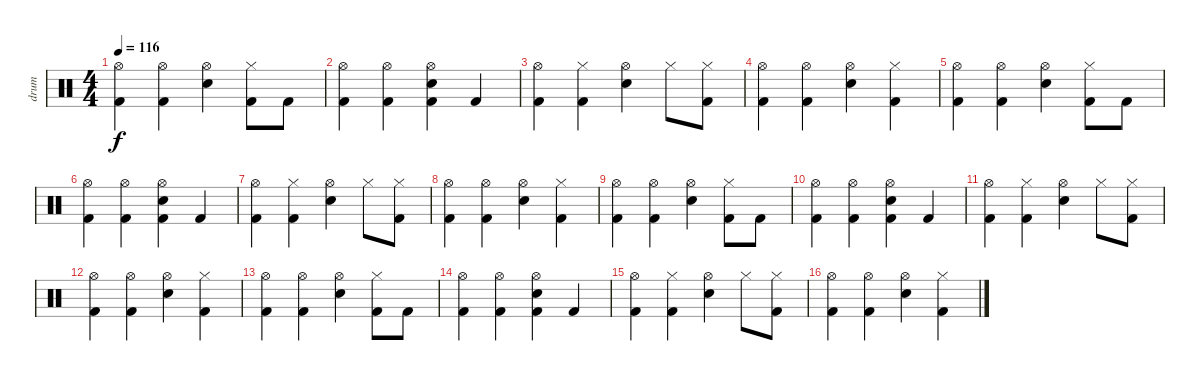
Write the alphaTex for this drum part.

\track ("drum" "drum") {instrument percussion}
\staff {score}
\articulation defaults
\ts (4 4)
\tempo 116
\clef neutral
\ks c
("Hi-Hat (open)" "Kick (hit) 2").4{dy f} ("Hi-Hat (open)" "Kick (hit) 2").4 ("Hi-Hat (open)" "Electric Snare (hit)").4 ("Hi-Hat (closed)" "Kick (hit) 2").8 "Kick (hit) 2".8 |
("Hi-Hat (open)" "Kick (hit) 2").4 ("Hi-Hat (open)" "Kick (hit) 2").4 ("Hi-Hat (open)" "Electric Snare (hit)" "Kick (hit) 2").4 "Kick (hit) 2".4 |
("Hi-Hat (open)" "Kick (hit) 2").4 ("Hi-Hat (closed)" "Kick (hit) 2").4 ("Hi-Hat (open)" "Electric Snare (hit)").4 "Hi-Hat (closed)".8 ("Hi-Hat (closed)" "Kick (hit) 2").8 |
("Hi-Hat (open)" "Kick (hit) 2").4 ("Hi-Hat (open)" "Kick (hit) 2").4 ("Hi-Hat (open)" "Electric Snare (hit)").4 ("Hi-Hat (closed)" "Kick (hit) 2").4 |
("Hi-Hat (open)" "Kick (hit) 2").4 ("Hi-Hat (open)" "Kick (hit) 2").4 ("Hi-Hat (open)" "Electric Snare (hit)").4 ("Hi-Hat (closed)" "Kick (hit) 2").8 "Kick (hit) 2".8 |
("Hi-Hat (open)" "Kick (hit) 2").4 ("Hi-Hat (open)" "Kick (hit) 2").4 ("Hi-Hat (open)" "Electric Snare (hit)" "Kick (hit) 2").4 "Kick (hit) 2".4 |
("Hi-Hat (open)" "Kick (hit) 2").4 ("Hi-Hat (closed)" "Kick (hit) 2").4 ("Hi-Hat (open)" "Electric Snare (hit)").4 "Hi-Hat (closed)".8 ("Hi-Hat (closed)" "Kick (hit) 2").8 |
("Hi-Hat (open)" "Kick (hit) 2").4 ("Hi-Hat (open)" "Kick (hit) 2").4 ("Hi-Hat (open)" "Electric Snare (hit)").4 ("Hi-Hat (closed)" "Kick (hit) 2").4 |
("Hi-Hat (open)" "Kick (hit) 2").4 ("Hi-Hat (open)" "Kick (hit) 2").4 ("Hi-Hat (open)" "Electric Snare (hit)").4 ("Hi-Hat (closed)" "Kick (hit) 2").8 "Kick (hit) 2".8 |
("Hi-Hat (open)" "Kick (hit) 2").4 ("Hi-Hat (open)" "Kick (hit) 2").4 ("Hi-Hat (open)" "Electric Snare (hit)" "Kick (hit) 2").4 "Kick (hit) 2".4 |
("Hi-Hat (open)" "Kick (hit) 2").4 ("Hi-Hat (closed)" "Kick (hit) 2").4 ("Hi-Hat (open)" "Electric Snare (hit)").4 "Hi-Hat (closed)".8 ("Hi-Hat (closed)" "Kick (hit) 2").8 |
("Hi-Hat (open)" "Kick (hit) 2").4 ("Hi-Hat (open)" "Kick (hit) 2").4 ("Hi-Hat (open)" "Electric Snare (hit)").4 ("Hi-Hat (closed)" "Kick (hit) 2").4 |
("Hi-Hat (open)" "Kick (hit) 2").4 ("Hi-Hat (open)" "Kick (hit) 2").4 ("Hi-Hat (open)" "Electric Snare (hit)").4 ("Hi-Hat (closed)" "Kick (hit) 2").8 "Kick (hit) 2".8 |
("Hi-Hat (open)" "Kick (hit) 2").4 ("Hi-Hat (open)" "Kick (hit) 2").4 ("Hi-Hat (open)" "Electric Snare (hit)" "Kick (hit) 2").4 "Kick (hit) 2".4 |
("Hi-Hat (open)" "Kick (hit) 2").4 ("Hi-Hat (closed)" "Kick (hit) 2").4 ("Hi-Hat (open)" "Electric Snare (hit)").4 "Hi-Hat (closed)".8 ("Hi-Hat (closed)" "Kick (hit) 2").8 |
("Hi-Hat (open)" "Kick (hit) 2").4 ("Hi-Hat (open)" "Kick (hit) 2").4 ("Hi-Hat (open)" "Electric Snare (hit)").4 ("Hi-Hat (closed)" "Kick (hit) 2").4
